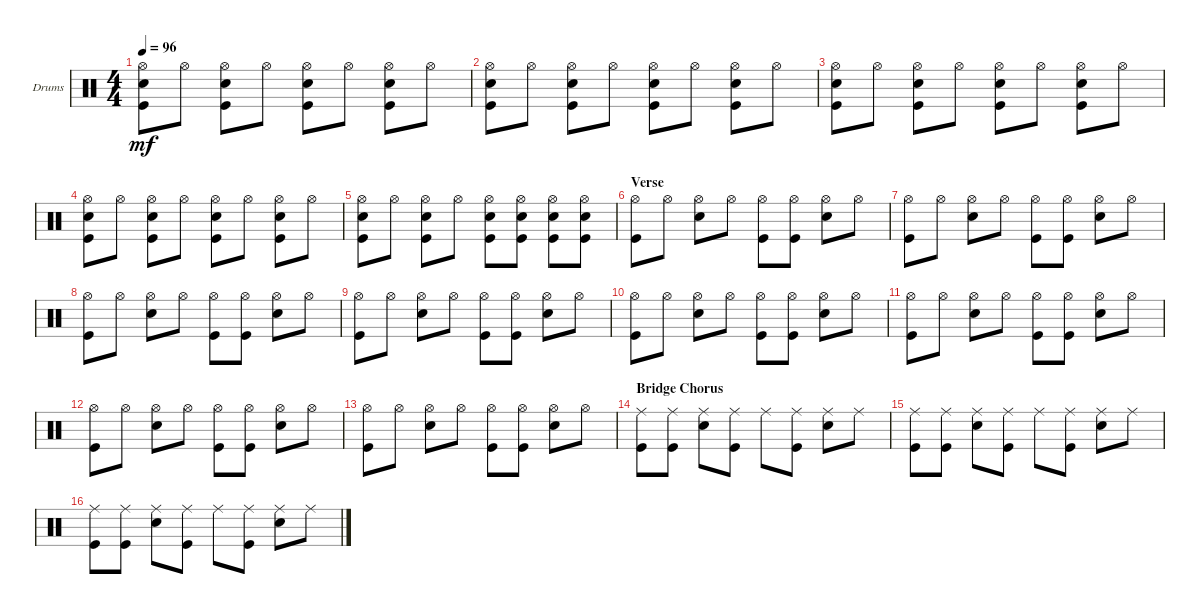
\defaultSystemsLayout 4
\bracketExtendMode groupsimilarinstruments
\firstSystemTrackNameOrientation horizontal
\otherSystemsTrackNameOrientation horizontal
\track ("Drumkit" "Drums") {instrument percussion}
\staff {score}
\articulation defaults
\ts (4 4)
\tempo 96
\clef neutral
\ks c
("Hi-Hat (open)" "Kick (hit)" "Snare (hit) 2").8{dy mf} "Hi-Hat (open)".8 ("Hi-Hat (open)" "Snare (hit) 2" "Kick (hit)").8 "Hi-Hat (open)".8 ("Hi-Hat (open)" "Kick (hit)" "Snare (hit) 2").8 "Hi-Hat (open)".8 ("Hi-Hat (open)" "Snare (hit) 2" "Kick (hit)").8 "Hi-Hat (open)".8 |
("Hi-Hat (open)" "Kick (hit)" "Snare (hit) 2").8 "Hi-Hat (open)".8 ("Hi-Hat (open)" "Snare (hit) 2" "Kick (hit)").8 "Hi-Hat (open)".8 ("Hi-Hat (open)" "Kick (hit)" "Snare (hit) 2").8 "Hi-Hat (open)".8 ("Hi-Hat (open)" "Snare (hit) 2" "Kick (hit)").8 "Hi-Hat (open)".8 |
("Hi-Hat (open)" "Kick (hit)" "Snare (hit) 2").8 "Hi-Hat (open)".8 ("Hi-Hat (open)" "Snare (hit) 2" "Kick (hit)").8 "Hi-Hat (open)".8 ("Hi-Hat (open)" "Kick (hit)" "Snare (hit) 2").8 "Hi-Hat (open)".8 ("Hi-Hat (open)" "Snare (hit) 2" "Kick (hit)").8 "Hi-Hat (open)".8 |
("Hi-Hat (open)" "Kick (hit)" "Snare (hit) 2").8 "Hi-Hat (open)".8 ("Hi-Hat (open)" "Snare (hit) 2" "Kick (hit)").8 "Hi-Hat (open)".8 ("Hi-Hat (open)" "Kick (hit)" "Snare (hit) 2").8 "Hi-Hat (open)".8 ("Hi-Hat (open)" "Snare (hit) 2" "Kick (hit)").8 "Hi-Hat (open)".8 |
("Hi-Hat (open)" "Kick (hit)" "Snare (hit) 2").8 "Hi-Hat (open)".8 ("Hi-Hat (open)" "Snare (hit) 2" "Kick (hit)").8 "Hi-Hat (open)".8 ("Hi-Hat (open)" "Kick (hit)" "Snare (hit) 2").8 ("Hi-Hat (open)" "Snare (hit) 2" "Kick (hit)").8 ("Hi-Hat (open)" "Snare (hit) 2" "Kick (hit)").8 ("Hi-Hat (open)" "Snare (hit) 2" "Kick (hit)").8 |
\section ("" "Verse")
("Hi-Hat (open)" "Kick (hit)").8 "Hi-Hat (open)".8 ("Hi-Hat (open)" "Snare (hit) 2").8 "Hi-Hat (open)".8 ("Hi-Hat (open)" "Kick (hit)").8 ("Hi-Hat (open)" "Kick (hit)").8 ("Hi-Hat (open)" "Snare (hit) 2").8 "Hi-Hat (open)".8 |
("Hi-Hat (open)" "Kick (hit)").8 "Hi-Hat (open)".8 ("Hi-Hat (open)" "Snare (hit) 2").8 "Hi-Hat (open)".8 ("Hi-Hat (open)" "Kick (hit)").8 ("Hi-Hat (open)" "Kick (hit)").8 ("Hi-Hat (open)" "Snare (hit) 2").8 "Hi-Hat (open)".8 |
("Hi-Hat (open)" "Kick (hit)").8 "Hi-Hat (open)".8 ("Hi-Hat (open)" "Snare (hit) 2").8 "Hi-Hat (open)".8 ("Hi-Hat (open)" "Kick (hit)").8 ("Hi-Hat (open)" "Kick (hit)").8 ("Hi-Hat (open)" "Snare (hit) 2").8 "Hi-Hat (open)".8 |
("Hi-Hat (open)" "Kick (hit)").8 "Hi-Hat (open)".8 ("Hi-Hat (open)" "Snare (hit) 2").8 "Hi-Hat (open)".8 ("Hi-Hat (open)" "Kick (hit)").8 ("Hi-Hat (open)" "Kick (hit)").8 ("Hi-Hat (open)" "Snare (hit) 2").8 "Hi-Hat (open)".8 |
("Hi-Hat (open)" "Kick (hit)").8 "Hi-Hat (open)".8 ("Hi-Hat (open)" "Snare (hit) 2").8 "Hi-Hat (open)".8 ("Hi-Hat (open)" "Kick (hit)").8 ("Hi-Hat (open)" "Kick (hit)").8 ("Hi-Hat (open)" "Snare (hit) 2").8 "Hi-Hat (open)".8 |
("Hi-Hat (open)" "Kick (hit)").8 "Hi-Hat (open)".8 ("Hi-Hat (open)" "Snare (hit) 2").8 "Hi-Hat (open)".8 ("Hi-Hat (open)" "Kick (hit)").8 ("Hi-Hat (open)" "Kick (hit)").8 ("Hi-Hat (open)" "Snare (hit) 2").8 "Hi-Hat (open)".8 |
("Hi-Hat (open)" "Kick (hit)").8 "Hi-Hat (open)".8 ("Hi-Hat (open)" "Snare (hit) 2").8 "Hi-Hat (open)".8 ("Hi-Hat (open)" "Kick (hit)").8 ("Hi-Hat (open)" "Kick (hit)").8 ("Hi-Hat (open)" "Snare (hit) 2").8 "Hi-Hat (open)".8 |
("Hi-Hat (open)" "Kick (hit)").8 "Hi-Hat (open)".8 ("Hi-Hat (open)" "Snare (hit) 2").8 "Hi-Hat (open)".8 ("Hi-Hat (open)" "Kick (hit)").8 ("Hi-Hat (open)" "Kick (hit)").8 ("Hi-Hat (open)" "Snare (hit) 2").8 "Hi-Hat (open)".8 |
\section ("" "Bridge Chorus")
("Ride (middle)" "Kick (hit)").8 ("Ride (middle)" "Kick (hit)").8 ("Ride (middle)" "Snare (hit) 2").8 ("Ride (middle)" "Kick (hit)").8 "Ride (middle)".8 ("Ride (middle)" "Kick (hit)").8 ("Ride (middle)" "Snare (hit) 2").8 "Ride (middle)".8 |
("Ride (middle)" "Kick (hit)").8 ("Ride (middle)" "Kick (hit)").8 ("Ride (middle)" "Snare (hit) 2").8 ("Ride (middle)" "Kick (hit)").8 "Ride (middle)".8 ("Ride (middle)" "Kick (hit)").8 ("Ride (middle)" "Snare (hit) 2").8 "Ride (middle)".8 |
("Ride (middle)" "Kick (hit)").8 ("Ride (middle)" "Kick (hit)").8 ("Ride (middle)" "Snare (hit) 2").8 ("Ride (middle)" "Kick (hit)").8 "Ride (middle)".8 ("Ride (middle)" "Kick (hit)").8 ("Ride (middle)" "Snare (hit) 2").8 "Ride (middle)".8
